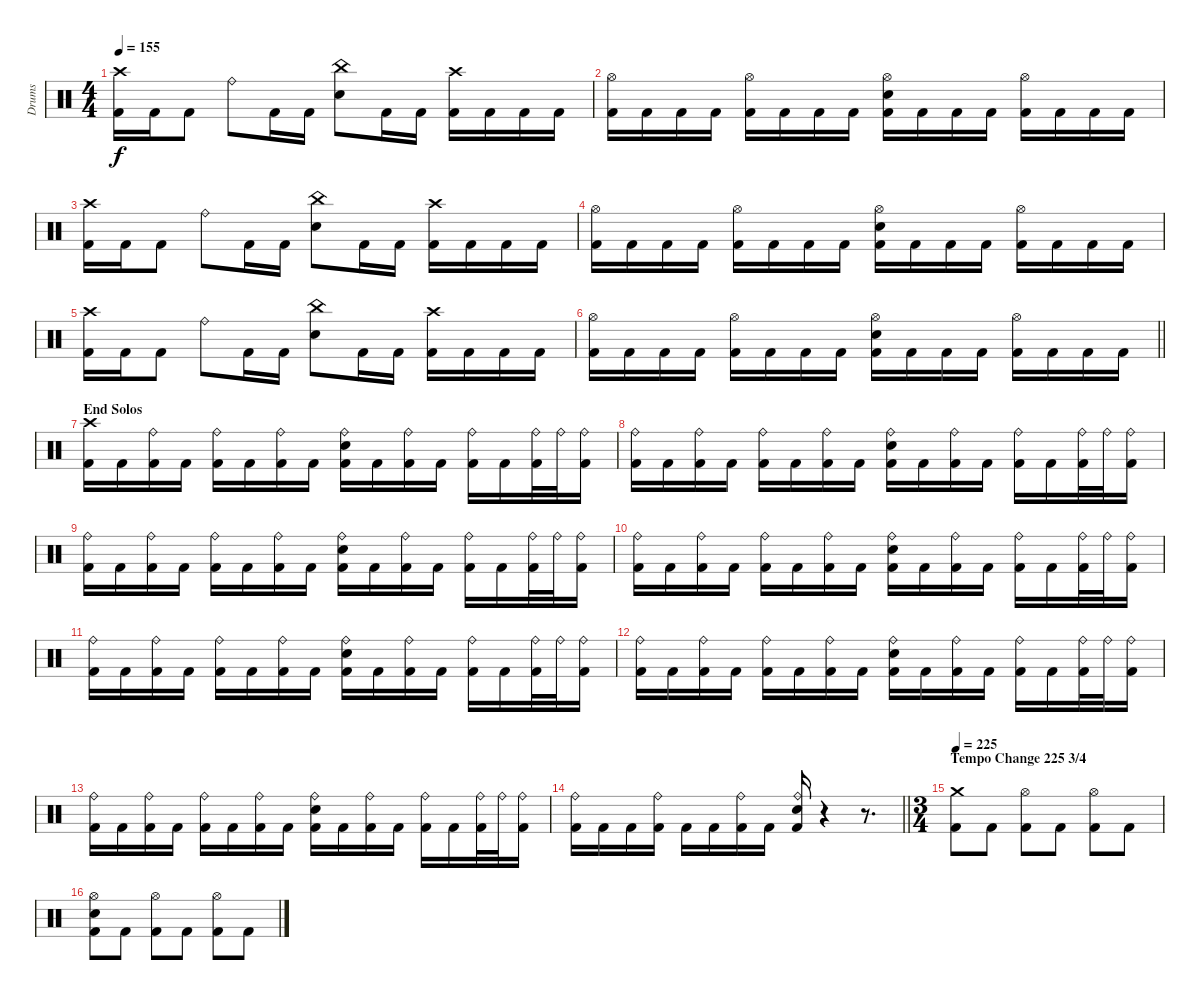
\track ("Drums" "Drums") {instrument percussion}
\staff {score}
\articulation defaults
\ts (4 4)
\tempo 155
\clef neutral
\ks c
("Crash high (hit)" "Kick (hit) 2").16{dy f} "Kick (hit) 2".16 "Kick (hit) 2".8 "Ride (bell)".8 "Kick (hit) 2".16 "Kick (hit) 2".16 ("China (hit)" "Electric Snare (hit)").8 "Kick (hit) 2".16 "Kick (hit) 2".16 ("Crash high (hit)" "Kick (hit) 2").16 "Kick (hit) 2".16 "Kick (hit) 2".16 "Kick (hit) 2".16 |
("Hi-Hat (open)" "Kick (hit) 2").16 "Kick (hit) 2".16 "Kick (hit) 2".16 "Kick (hit) 2".16 ("Hi-Hat (open)" "Kick (hit) 2").16 "Kick (hit) 2".16 "Kick (hit) 2".16 "Kick (hit) 2".16 ("Hi-Hat (open)" "Electric Snare (hit)" "Kick (hit) 2").16 "Kick (hit) 2".16 "Kick (hit) 2".16 "Kick (hit) 2".16 ("Hi-Hat (open)" "Kick (hit) 2").16 "Kick (hit) 2".16 "Kick (hit) 2".16 "Kick (hit) 2".16 |
("Crash high (hit)" "Kick (hit) 2").16 "Kick (hit) 2".16 "Kick (hit) 2".8 "Ride (bell)".8 "Kick (hit) 2".16 "Kick (hit) 2".16 ("China (hit)" "Electric Snare (hit)").8 "Kick (hit) 2".16 "Kick (hit) 2".16 ("Crash high (hit)" "Kick (hit) 2").16 "Kick (hit) 2".16 "Kick (hit) 2".16 "Kick (hit) 2".16 |
("Hi-Hat (open)" "Kick (hit) 2").16 "Kick (hit) 2".16 "Kick (hit) 2".16 "Kick (hit) 2".16 ("Hi-Hat (open)" "Kick (hit) 2").16 "Kick (hit) 2".16 "Kick (hit) 2".16 "Kick (hit) 2".16 ("Hi-Hat (open)" "Electric Snare (hit)" "Kick (hit) 2").16 "Kick (hit) 2".16 "Kick (hit) 2".16 "Kick (hit) 2".16 ("Hi-Hat (open)" "Kick (hit) 2").16 "Kick (hit) 2".16 "Kick (hit) 2".16 "Kick (hit) 2".16 |
("Crash high (hit)" "Kick (hit) 2").16 "Kick (hit) 2".16 "Kick (hit) 2".8 "Ride (bell)".8 "Kick (hit) 2".16 "Kick (hit) 2".16 ("China (hit)" "Electric Snare (hit)").8 "Kick (hit) 2".16 "Kick (hit) 2".16 ("Crash high (hit)" "Kick (hit) 2").16 "Kick (hit) 2".16 "Kick (hit) 2".16 "Kick (hit) 2".16 |
\barLineRight lightlight
("Hi-Hat (open)" "Kick (hit) 2").16 "Kick (hit) 2".16 "Kick (hit) 2".16 "Kick (hit) 2".16 ("Hi-Hat (open)" "Kick (hit) 2").16 "Kick (hit) 2".16 "Kick (hit) 2".16 "Kick (hit) 2".16 ("Hi-Hat (open)" "Electric Snare (hit)" "Kick (hit) 2").16 "Kick (hit) 2".16 "Kick (hit) 2".16 "Kick (hit) 2".16 ("Hi-Hat (open)" "Kick (hit) 2").16 "Kick (hit) 2".16 "Kick (hit) 2".16 "Kick (hit) 2".16 |
\section ("" "End Solos")
("Crash high (hit)" "Kick (hit) 2").16 "Kick (hit) 2".16 ("Ride (bell)" "Kick (hit) 2").16 "Kick (hit) 2".16 ("Ride (bell)" "Kick (hit) 2").16 "Kick (hit) 2".16 ("Ride (bell)" "Kick (hit) 2").16 "Kick (hit) 2".16 ("Ride (bell)" "Electric Snare (hit)" "Kick (hit) 2").16 "Kick (hit) 2".16 ("Ride (bell)" "Kick (hit) 2").16 "Kick (hit) 2".16 ("Ride (bell)" "Kick (hit) 2").16 "Kick (hit) 2".16 ("Ride (bell)" "Kick (hit) 2").32 "Ride (bell)".32 ("Ride (bell)" "Kick (hit) 2").16 |
("Ride (bell)" "Kick (hit) 2").16 "Kick (hit) 2".16 ("Ride (bell)" "Kick (hit) 2").16 "Kick (hit) 2".16 ("Ride (bell)" "Kick (hit) 2").16 "Kick (hit) 2".16 ("Ride (bell)" "Kick (hit) 2").16 "Kick (hit) 2".16 ("Ride (bell)" "Electric Snare (hit)" "Kick (hit) 2").16 "Kick (hit) 2".16 ("Ride (bell)" "Kick (hit) 2").16 "Kick (hit) 2".16 ("Ride (bell)" "Kick (hit) 2").16 "Kick (hit) 2".16 ("Ride (bell)" "Kick (hit) 2").32 "Ride (bell)".32 ("Ride (bell)" "Kick (hit) 2").16 |
("Ride (bell)" "Kick (hit) 2").16 "Kick (hit) 2".16 ("Ride (bell)" "Kick (hit) 2").16 "Kick (hit) 2".16 ("Ride (bell)" "Kick (hit) 2").16 "Kick (hit) 2".16 ("Ride (bell)" "Kick (hit) 2").16 "Kick (hit) 2".16 ("Ride (bell)" "Electric Snare (hit)" "Kick (hit) 2").16 "Kick (hit) 2".16 ("Ride (bell)" "Kick (hit) 2").16 "Kick (hit) 2".16 ("Ride (bell)" "Kick (hit) 2").16 "Kick (hit) 2".16 ("Ride (bell)" "Kick (hit) 2").32 "Ride (bell)".32 ("Ride (bell)" "Kick (hit) 2").16 |
("Ride (bell)" "Kick (hit) 2").16 "Kick (hit) 2".16 ("Ride (bell)" "Kick (hit) 2").16 "Kick (hit) 2".16 ("Ride (bell)" "Kick (hit) 2").16 "Kick (hit) 2".16 ("Ride (bell)" "Kick (hit) 2").16 "Kick (hit) 2".16 ("Ride (bell)" "Electric Snare (hit)" "Kick (hit) 2").16 "Kick (hit) 2".16 ("Ride (bell)" "Kick (hit) 2").16 "Kick (hit) 2".16 ("Ride (bell)" "Kick (hit) 2").16 "Kick (hit) 2".16 ("Ride (bell)" "Kick (hit) 2").32 "Ride (bell)".32 ("Ride (bell)" "Kick (hit) 2").16 |
("Ride (bell)" "Kick (hit) 2").16 "Kick (hit) 2".16 ("Ride (bell)" "Kick (hit) 2").16 "Kick (hit) 2".16 ("Ride (bell)" "Kick (hit) 2").16 "Kick (hit) 2".16 ("Ride (bell)" "Kick (hit) 2").16 "Kick (hit) 2".16 ("Ride (bell)" "Electric Snare (hit)" "Kick (hit) 2").16 "Kick (hit) 2".16 ("Ride (bell)" "Kick (hit) 2").16 "Kick (hit) 2".16 ("Ride (bell)" "Kick (hit) 2").16 "Kick (hit) 2".16 ("Ride (bell)" "Kick (hit) 2").32 "Ride (bell)".32 ("Ride (bell)" "Kick (hit) 2").16 |
("Ride (bell)" "Kick (hit) 2").16 "Kick (hit) 2".16 ("Ride (bell)" "Kick (hit) 2").16 "Kick (hit) 2".16 ("Ride (bell)" "Kick (hit) 2").16 "Kick (hit) 2".16 ("Ride (bell)" "Kick (hit) 2").16 "Kick (hit) 2".16 ("Ride (bell)" "Electric Snare (hit)" "Kick (hit) 2").16 "Kick (hit) 2".16 ("Ride (bell)" "Kick (hit) 2").16 "Kick (hit) 2".16 ("Ride (bell)" "Kick (hit) 2").16 "Kick (hit) 2".16 ("Ride (bell)" "Kick (hit) 2").32 "Ride (bell)".32 ("Ride (bell)" "Kick (hit) 2").16 |
("Ride (bell)" "Kick (hit) 2").16 "Kick (hit) 2".16 ("Ride (bell)" "Kick (hit) 2").16 "Kick (hit) 2".16 ("Ride (bell)" "Kick (hit) 2").16 "Kick (hit) 2".16 ("Ride (bell)" "Kick (hit) 2").16 "Kick (hit) 2".16 ("Ride (bell)" "Electric Snare (hit)" "Kick (hit) 2").16 "Kick (hit) 2".16 ("Ride (bell)" "Kick (hit) 2").16 "Kick (hit) 2".16 ("Ride (bell)" "Kick (hit) 2").16 "Kick (hit) 2".16 ("Ride (bell)" "Kick (hit) 2").32 "Ride (bell)".32 ("Ride (bell)" "Kick (hit) 2").16 |
\barLineRight lightlight
("Ride (bell)" "Kick (hit) 2").16 "Kick (hit) 2".16 "Kick (hit) 2".16 ("Ride (bell)" "Kick (hit) 2").16 "Kick (hit) 2".16 "Kick (hit) 2".16 ("Ride (bell)" "Kick (hit) 2").16 "Kick (hit) 2".16 ("Ride (bell)" "Electric Snare (hit)" "Kick (hit) 2").16 r.4 r.8{d} |
\ts (3 4)
\section ("" "Tempo Change 225 3/4")
\tempo 225
("Crash medium (hit)" "Kick (hit) 2").8 "Kick (hit) 2".8 ("Hi-Hat (open)" "Kick (hit) 2").8 "Kick (hit) 2".8 ("Hi-Hat (open)" "Kick (hit) 2").8 "Kick (hit) 2".8 |
("Hi-Hat (open)" "Electric Snare (hit)" "Kick (hit) 2").8 "Kick (hit) 2".8 ("Hi-Hat (open)" "Kick (hit) 2").8 "Kick (hit) 2".8 ("Hi-Hat (open)" "Kick (hit) 2").8 "Kick (hit) 2".8
